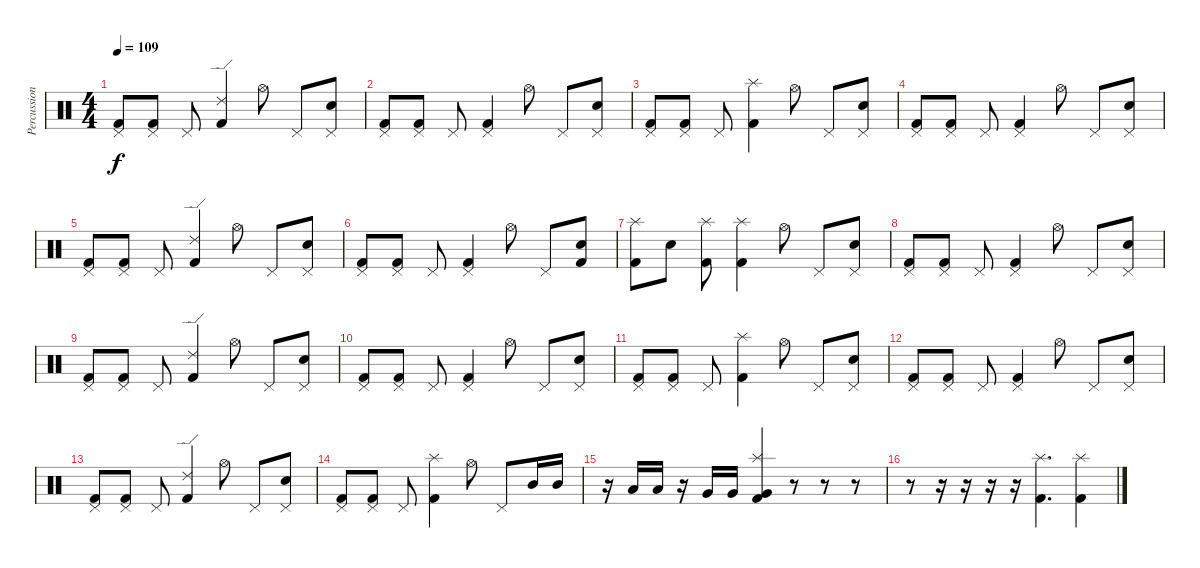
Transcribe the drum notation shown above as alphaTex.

\track ("Percussion" "Percussion") {instrument percussion}
\staff {score}
\articulation defaults
\ts (4 4)
\tempo 109
\clef neutral
\ks c
("Pedal Hi-Hat (hit)" "Kick (hit) 2").8{dy f} ("Pedal Hi-Hat (hit)" "Kick (hit) 2").8 "Pedal Hi-Hat (hit)".8 ("Ride (edge) 2" "Kick (hit) 2").4 "Hi-Hat (open)".8 "Pedal Hi-Hat (hit)".8 ("Pedal Hi-Hat (hit)" "Snare (hit) 2").8 |
("Pedal Hi-Hat (hit)" "Kick (hit) 2").8 ("Pedal Hi-Hat (hit)" "Kick (hit) 2").8 "Pedal Hi-Hat (hit)".8 ("Pedal Hi-Hat (hit)" "Kick (hit) 2").4 "Hi-Hat (open)".8 "Pedal Hi-Hat (hit)".8 ("Pedal Hi-Hat (hit)" "Snare (hit) 2").8 |
("Pedal Hi-Hat (hit)" "Kick (hit) 2").8 ("Pedal Hi-Hat (hit)" "Kick (hit) 2").8 "Pedal Hi-Hat (hit)".8 ("Splash (hit)" "Kick (hit) 2").4 "Hi-Hat (open)".8 "Pedal Hi-Hat (hit)".8 ("Pedal Hi-Hat (hit)" "Snare (hit) 2").8 |
("Pedal Hi-Hat (hit)" "Kick (hit) 2").8 ("Pedal Hi-Hat (hit)" "Kick (hit) 2").8 "Pedal Hi-Hat (hit)".8 ("Pedal Hi-Hat (hit)" "Kick (hit) 2").4 "Hi-Hat (open)".8 "Pedal Hi-Hat (hit)".8 ("Pedal Hi-Hat (hit)" "Snare (hit) 2").8 |
("Pedal Hi-Hat (hit)" "Kick (hit) 2").8 ("Pedal Hi-Hat (hit)" "Kick (hit) 2").8 "Pedal Hi-Hat (hit)".8 ("Ride (edge) 2" "Kick (hit) 2").4 "Hi-Hat (open)".8 "Pedal Hi-Hat (hit)".8 ("Pedal Hi-Hat (hit)" "Snare (hit) 2").8 |
("Pedal Hi-Hat (hit)" "Kick (hit) 2").8 ("Pedal Hi-Hat (hit)" "Kick (hit) 2").8 "Pedal Hi-Hat (hit)".8 ("Pedal Hi-Hat (hit)" "Kick (hit) 2").4 "Hi-Hat (open)".8 "Pedal Hi-Hat (hit)".8 ("Snare (hit) 2" "Kick (hit) 2").8 |
("Splash (hit)" "Kick (hit) 2").8 "Snare (hit) 2".8 ("Splash (hit)" "Kick (hit) 2").8 ("Splash (hit)" "Kick (hit) 2").4 "Hi-Hat (open)".8 "Pedal Hi-Hat (hit)".8 ("Pedal Hi-Hat (hit)" "Snare (hit) 2").8 |
("Pedal Hi-Hat (hit)" "Kick (hit) 2").8 ("Pedal Hi-Hat (hit)" "Kick (hit) 2").8 "Pedal Hi-Hat (hit)".8 ("Pedal Hi-Hat (hit)" "Kick (hit) 2").4 "Hi-Hat (open)".8 "Pedal Hi-Hat (hit)".8 ("Pedal Hi-Hat (hit)" "Snare (hit) 2").8 |
("Pedal Hi-Hat (hit)" "Kick (hit) 2").8 ("Pedal Hi-Hat (hit)" "Kick (hit) 2").8 "Pedal Hi-Hat (hit)".8 ("Ride (edge) 2" "Kick (hit) 2").4 "Hi-Hat (open)".8 "Pedal Hi-Hat (hit)".8 ("Pedal Hi-Hat (hit)" "Snare (hit) 2").8 |
("Pedal Hi-Hat (hit)" "Kick (hit) 2").8 ("Pedal Hi-Hat (hit)" "Kick (hit) 2").8 "Pedal Hi-Hat (hit)".8 ("Pedal Hi-Hat (hit)" "Kick (hit) 2").4 "Hi-Hat (open)".8 "Pedal Hi-Hat (hit)".8 ("Pedal Hi-Hat (hit)" "Snare (hit) 2").8 |
("Pedal Hi-Hat (hit)" "Kick (hit) 2").8 ("Pedal Hi-Hat (hit)" "Kick (hit) 2").8 "Pedal Hi-Hat (hit)".8 ("Splash (hit)" "Kick (hit) 2").4 "Hi-Hat (open)".8 "Pedal Hi-Hat (hit)".8 ("Pedal Hi-Hat (hit)" "Snare (hit) 2").8 |
("Pedal Hi-Hat (hit)" "Kick (hit) 2").8 ("Pedal Hi-Hat (hit)" "Kick (hit) 2").8 "Pedal Hi-Hat (hit)".8 ("Pedal Hi-Hat (hit)" "Kick (hit) 2").4 "Hi-Hat (open)".8 "Pedal Hi-Hat (hit)".8 ("Pedal Hi-Hat (hit)" "Snare (hit) 2").8 |
("Pedal Hi-Hat (hit)" "Kick (hit) 2").8 ("Pedal Hi-Hat (hit)" "Kick (hit) 2").8 "Pedal Hi-Hat (hit)".8 ("Ride (edge) 2" "Kick (hit) 2").4 "Hi-Hat (open)".8 "Pedal Hi-Hat (hit)".8 ("Pedal Hi-Hat (hit)" "Snare (hit) 2").8 |
("Pedal Hi-Hat (hit)" "Kick (hit) 2").8 ("Pedal Hi-Hat (hit)" "Kick (hit) 2").8 "Pedal Hi-Hat (hit)".8 ("Splash (hit)" "Kick (hit) 2").4 "Hi-Hat (open)".8 "Pedal Hi-Hat (hit)".8 "Mid Tom (hit)".16 "Mid Tom (hit)".16 |
r.16 "Low Tom (hit)".16 "Low Tom (hit)".16 r.16 "Very Low Tom (hit)".16 "Very Low Tom (hit)".16 ("Splash (hit)" "Very Low Tom (hit)" "Kick (hit) 2").4 r.8 r.8 r.8 |
r.8 r.16 r.16 r.16 r.16 ("Splash (hit)" "Kick (hit) 2").4{d} ("Splash (hit)" "Kick (hit) 2").4
